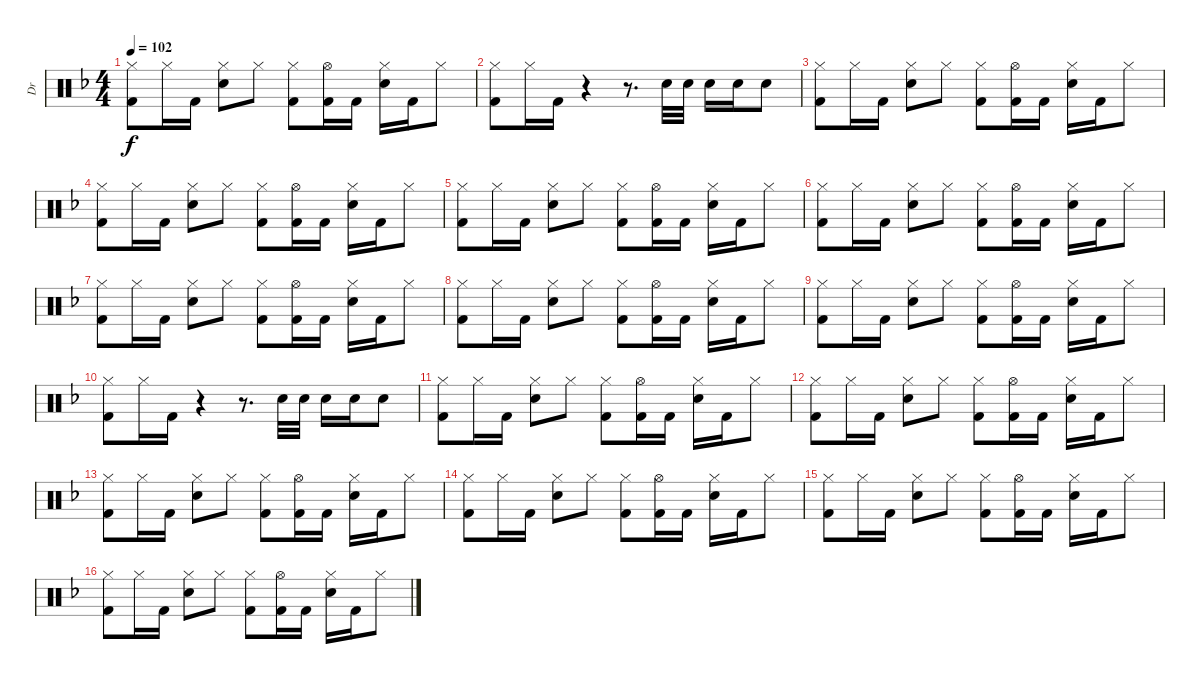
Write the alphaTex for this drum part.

\track ("Dr" "Dr") {instrument percussion}
\staff {score}
\articulation defaults
\ts (4 4)
\tempo 102
\clef neutral
\ks f
("Hi-Hat (closed)" "Kick (hit) 2").8{dy f} "Hi-Hat (closed)".16 "Kick (hit) 2".16 ("Hi-Hat (closed)" "Electric Snare (hit)").8 "Hi-Hat (closed)".8 ("Hi-Hat (closed)" "Kick (hit) 2").8 ("Hi-Hat (open)" "Kick (hit) 2").16 "Kick (hit) 2".16 ("Hi-Hat (closed)" "Electric Snare (hit)").16 "Kick (hit) 2".16 "Hi-Hat (closed)".8 |
("Hi-Hat (closed)" "Kick (hit) 2").8 "Hi-Hat (closed)".16 "Kick (hit) 2".16 r.4 r.8{d} "Electric Snare (hit)".32 "Electric Snare (hit)".32 "Electric Snare (hit)".16 "Electric Snare (hit)".16 "Electric Snare (hit)".8 |
("Hi-Hat (closed)" "Kick (hit) 2").8 "Hi-Hat (closed)".16 "Kick (hit) 2".16 ("Hi-Hat (closed)" "Electric Snare (hit)").8 "Hi-Hat (closed)".8 ("Hi-Hat (closed)" "Kick (hit) 2").8 ("Hi-Hat (open)" "Kick (hit) 2").16 "Kick (hit) 2".16 ("Hi-Hat (closed)" "Electric Snare (hit)").16 "Kick (hit) 2".16 "Hi-Hat (closed)".8 |
("Hi-Hat (closed)" "Kick (hit) 2").8 "Hi-Hat (closed)".16 "Kick (hit) 2".16 ("Hi-Hat (closed)" "Electric Snare (hit)").8 "Hi-Hat (closed)".8 ("Hi-Hat (closed)" "Kick (hit) 2").8 ("Hi-Hat (open)" "Kick (hit) 2").16 "Kick (hit) 2".16 ("Hi-Hat (closed)" "Electric Snare (hit)").16 "Kick (hit) 2".16 "Hi-Hat (closed)".8 |
("Hi-Hat (closed)" "Kick (hit) 2").8 "Hi-Hat (closed)".16 "Kick (hit) 2".16 ("Hi-Hat (closed)" "Electric Snare (hit)").8 "Hi-Hat (closed)".8 ("Hi-Hat (closed)" "Kick (hit) 2").8 ("Hi-Hat (open)" "Kick (hit) 2").16 "Kick (hit) 2".16 ("Hi-Hat (closed)" "Electric Snare (hit)").16 "Kick (hit) 2".16 "Hi-Hat (closed)".8 |
("Hi-Hat (closed)" "Kick (hit) 2").8 "Hi-Hat (closed)".16 "Kick (hit) 2".16 ("Hi-Hat (closed)" "Electric Snare (hit)").8 "Hi-Hat (closed)".8 ("Hi-Hat (closed)" "Kick (hit) 2").8 ("Hi-Hat (open)" "Kick (hit) 2").16 "Kick (hit) 2".16 ("Hi-Hat (closed)" "Electric Snare (hit)").16 "Kick (hit) 2".16 "Hi-Hat (closed)".8 |
("Hi-Hat (closed)" "Kick (hit) 2").8 "Hi-Hat (closed)".16 "Kick (hit) 2".16 ("Hi-Hat (closed)" "Electric Snare (hit)").8 "Hi-Hat (closed)".8 ("Hi-Hat (closed)" "Kick (hit) 2").8 ("Hi-Hat (open)" "Kick (hit) 2").16 "Kick (hit) 2".16 ("Hi-Hat (closed)" "Electric Snare (hit)").16 "Kick (hit) 2".16 "Hi-Hat (closed)".8 |
("Hi-Hat (closed)" "Kick (hit) 2").8 "Hi-Hat (closed)".16 "Kick (hit) 2".16 ("Hi-Hat (closed)" "Electric Snare (hit)").8 "Hi-Hat (closed)".8 ("Hi-Hat (closed)" "Kick (hit) 2").8 ("Hi-Hat (open)" "Kick (hit) 2").16 "Kick (hit) 2".16 ("Hi-Hat (closed)" "Electric Snare (hit)").16 "Kick (hit) 2".16 "Hi-Hat (closed)".8 |
("Hi-Hat (closed)" "Kick (hit) 2").8 "Hi-Hat (closed)".16 "Kick (hit) 2".16 ("Hi-Hat (closed)" "Electric Snare (hit)").8 "Hi-Hat (closed)".8 ("Hi-Hat (closed)" "Kick (hit) 2").8 ("Hi-Hat (open)" "Kick (hit) 2").16 "Kick (hit) 2".16 ("Hi-Hat (closed)" "Electric Snare (hit)").16 "Kick (hit) 2".16 "Hi-Hat (closed)".8 |
("Hi-Hat (closed)" "Kick (hit) 2").8 "Hi-Hat (closed)".16 "Kick (hit) 2".16 r.4 r.8{d} "Electric Snare (hit)".32 "Electric Snare (hit)".32 "Electric Snare (hit)".16 "Electric Snare (hit)".16 "Electric Snare (hit)".8 |
("Hi-Hat (closed)" "Kick (hit) 2").8 "Hi-Hat (closed)".16 "Kick (hit) 2".16 ("Hi-Hat (closed)" "Electric Snare (hit)").8 "Hi-Hat (closed)".8 ("Hi-Hat (closed)" "Kick (hit) 2").8 ("Hi-Hat (open)" "Kick (hit) 2").16 "Kick (hit) 2".16 ("Hi-Hat (closed)" "Electric Snare (hit)").16 "Kick (hit) 2".16 "Hi-Hat (closed)".8 |
("Hi-Hat (closed)" "Kick (hit) 2").8 "Hi-Hat (closed)".16 "Kick (hit) 2".16 ("Hi-Hat (closed)" "Electric Snare (hit)").8 "Hi-Hat (closed)".8 ("Hi-Hat (closed)" "Kick (hit) 2").8 ("Hi-Hat (open)" "Kick (hit) 2").16 "Kick (hit) 2".16 ("Hi-Hat (closed)" "Electric Snare (hit)").16 "Kick (hit) 2".16 "Hi-Hat (closed)".8 |
("Hi-Hat (closed)" "Kick (hit) 2").8 "Hi-Hat (closed)".16 "Kick (hit) 2".16 ("Hi-Hat (closed)" "Electric Snare (hit)").8 "Hi-Hat (closed)".8 ("Hi-Hat (closed)" "Kick (hit) 2").8 ("Hi-Hat (open)" "Kick (hit) 2").16 "Kick (hit) 2".16 ("Hi-Hat (closed)" "Electric Snare (hit)").16 "Kick (hit) 2".16 "Hi-Hat (closed)".8 |
("Hi-Hat (closed)" "Kick (hit) 2").8 "Hi-Hat (closed)".16 "Kick (hit) 2".16 ("Hi-Hat (closed)" "Electric Snare (hit)").8 "Hi-Hat (closed)".8 ("Hi-Hat (closed)" "Kick (hit) 2").8 ("Hi-Hat (open)" "Kick (hit) 2").16 "Kick (hit) 2".16 ("Hi-Hat (closed)" "Electric Snare (hit)").16 "Kick (hit) 2".16 "Hi-Hat (closed)".8 |
("Hi-Hat (closed)" "Kick (hit) 2").8 "Hi-Hat (closed)".16 "Kick (hit) 2".16 ("Hi-Hat (closed)" "Electric Snare (hit)").8 "Hi-Hat (closed)".8 ("Hi-Hat (closed)" "Kick (hit) 2").8 ("Hi-Hat (open)" "Kick (hit) 2").16 "Kick (hit) 2".16 ("Hi-Hat (closed)" "Electric Snare (hit)").16 "Kick (hit) 2".16 "Hi-Hat (closed)".8 |
("Hi-Hat (closed)" "Kick (hit) 2").8 "Hi-Hat (closed)".16 "Kick (hit) 2".16 ("Hi-Hat (closed)" "Electric Snare (hit)").8 "Hi-Hat (closed)".8 ("Hi-Hat (closed)" "Kick (hit) 2").8 ("Hi-Hat (open)" "Kick (hit) 2").16 "Kick (hit) 2".16 ("Hi-Hat (closed)" "Electric Snare (hit)").16 "Kick (hit) 2".16 "Hi-Hat (closed)".8
